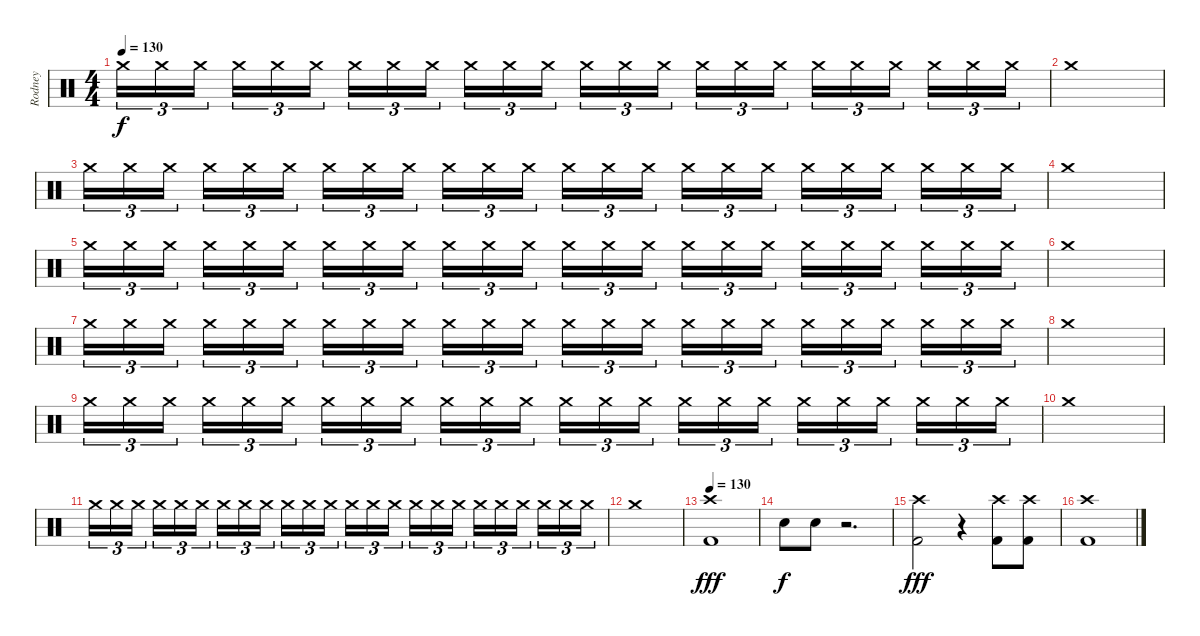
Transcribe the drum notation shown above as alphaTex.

\track ("Rodney" "Rodney") {instrument percussion}
\staff {score}
\articulation defaults
\ts (4 4)
\tempo 130
\clef neutral
\ks c "Crash medium (hit)".16{tu (3 2) dy f volume 16} "Crash medium (hit)".16{tu (3 2)} "Crash medium (hit)".16{tu (3 2)} "Crash medium (hit)".16{tu (3 2)} "Crash medium (hit)".16{tu (3 2)} "Crash medium (hit)".16{tu (3 2)} "Crash medium (hit)".16{tu (3 2)} "Crash medium (hit)".16{tu (3 2)} "Crash medium (hit)".16{tu (3 2)} "Crash medium (hit)".16{tu (3 2)} "Crash medium (hit)".16{tu (3 2)} "Crash medium (hit)".16{tu (3 2)} "Crash medium (hit)".16{tu (3 2)} "Crash medium (hit)".16{tu (3 2)} "Crash medium (hit)".16{tu (3 2)} "Crash medium (hit)".16{tu (3 2)} "Crash medium (hit)".16{tu (3 2)} "Crash medium (hit)".16{tu (3 2)} "Crash medium (hit)".16{tu (3 2)} "Crash medium (hit)".16{tu (3 2)} "Crash medium (hit)".16{tu (3 2)} "Crash medium (hit)".16{tu (3 2)} "Crash medium (hit)".16{tu (3 2)} "Crash medium (hit)".16{tu (3 2)}
|
"Crash medium (hit)".1{volume 0} |
"Crash medium (hit)".16{tu (3 2) volume 16} "Crash medium (hit)".16{tu (3 2)} "Crash medium (hit)".16{tu (3 2)} "Crash medium (hit)".16{tu (3 2)} "Crash medium (hit)".16{tu (3 2)} "Crash medium (hit)".16{tu (3 2)} "Crash medium (hit)".16{tu (3 2)} "Crash medium (hit)".16{tu (3 2)} "Crash medium (hit)".16{tu (3 2)} "Crash medium (hit)".16{tu (3 2)} "Crash medium (hit)".16{tu (3 2)} "Crash medium (hit)".16{tu (3 2)} "Crash medium (hit)".16{tu (3 2)} "Crash medium (hit)".16{tu (3 2)} "Crash medium (hit)".16{tu (3 2)} "Crash medium (hit)".16{tu (3 2)} "Crash medium (hit)".16{tu (3 2)} "Crash medium (hit)".16{tu (3 2)} "Crash medium (hit)".16{tu (3 2)} "Crash medium (hit)".16{tu (3 2)} "Crash medium (hit)".16{tu (3 2)} "Crash medium (hit)".16{tu (3 2)} "Crash medium (hit)".16{tu (3 2)} "Crash medium (hit)".16{tu (3 2)} |
"Crash medium (hit)".1{volume 0} |
"Crash medium (hit)".16{tu (3 2) volume 16} "Crash medium (hit)".16{tu (3 2)} "Crash medium (hit)".16{tu (3 2)} "Crash medium (hit)".16{tu (3 2)} "Crash medium (hit)".16{tu (3 2)} "Crash medium (hit)".16{tu (3 2)} "Crash medium (hit)".16{tu (3 2)} "Crash medium (hit)".16{tu (3 2)} "Crash medium (hit)".16{tu (3 2)} "Crash medium (hit)".16{tu (3 2)} "Crash medium (hit)".16{tu (3 2)} "Crash medium (hit)".16{tu (3 2)} "Crash medium (hit)".16{tu (3 2)} "Crash medium (hit)".16{tu (3 2)} "Crash medium (hit)".16{tu (3 2)} "Crash medium (hit)".16{tu (3 2)} "Crash medium (hit)".16{tu (3 2)} "Crash medium (hit)".16{tu (3 2)} "Crash medium (hit)".16{tu (3 2)} "Crash medium (hit)".16{tu (3 2)} "Crash medium (hit)".16{tu (3 2)} "Crash medium (hit)".16{tu (3 2)} "Crash medium (hit)".16{tu (3 2)} "Crash medium (hit)".16{tu (3 2)} |
"Crash medium (hit)".1{volume 0} |
"Crash medium (hit)".16{tu (3 2) volume 16} "Crash medium (hit)".16{tu (3 2)} "Crash medium (hit)".16{tu (3 2)} "Crash medium (hit)".16{tu (3 2)} "Crash medium (hit)".16{tu (3 2)} "Crash medium (hit)".16{tu (3 2)} "Crash medium (hit)".16{tu (3 2)} "Crash medium (hit)".16{tu (3 2)} "Crash medium (hit)".16{tu (3 2)} "Crash medium (hit)".16{tu (3 2)} "Crash medium (hit)".16{tu (3 2)} "Crash medium (hit)".16{tu (3 2)} "Crash medium (hit)".16{tu (3 2)} "Crash medium (hit)".16{tu (3 2)} "Crash medium (hit)".16{tu (3 2)} "Crash medium (hit)".16{tu (3 2)} "Crash medium (hit)".16{tu (3 2)} "Crash medium (hit)".16{tu (3 2)} "Crash medium (hit)".16{tu (3 2)} "Crash medium (hit)".16{tu (3 2)} "Crash medium (hit)".16{tu (3 2)} "Crash medium (hit)".16{tu (3 2)} "Crash medium (hit)".16{tu (3 2)} "Crash medium (hit)".16{tu (3 2)} |
"Crash medium (hit)".1{volume 0} |
"Crash medium (hit)".16{tu (3 2) volume 16} "Crash medium (hit)".16{tu (3 2)} "Crash medium (hit)".16{tu (3 2)} "Crash medium (hit)".16{tu (3 2)} "Crash medium (hit)".16{tu (3 2)} "Crash medium (hit)".16{tu (3 2)} "Crash medium (hit)".16{tu (3 2)} "Crash medium (hit)".16{tu (3 2)} "Crash medium (hit)".16{tu (3 2)} "Crash medium (hit)".16{tu (3 2)} "Crash medium (hit)".16{tu (3 2)} "Crash medium (hit)".16{tu (3 2)} "Crash medium (hit)".16{tu (3 2)} "Crash medium (hit)".16{tu (3 2)} "Crash medium (hit)".16{tu (3 2)} "Crash medium (hit)".16{tu (3 2)} "Crash medium (hit)".16{tu (3 2)} "Crash medium (hit)".16{tu (3 2)} "Crash medium (hit)".16{tu (3 2)} "Crash medium (hit)".16{tu (3 2)} "Crash medium (hit)".16{tu (3 2)} "Crash medium (hit)".16{tu (3 2)} "Crash medium (hit)".16{tu (3 2)} "Crash medium (hit)".16{tu (3 2)} |
"Crash medium (hit)".1{volume 0} |
"Crash medium (hit)".16{tu (3 2) volume 16} "Crash medium (hit)".16{tu (3 2)} "Crash medium (hit)".16{tu (3 2)} "Crash medium (hit)".16{tu (3 2)} "Crash medium (hit)".16{tu (3 2)} "Crash medium (hit)".16{tu (3 2)} "Crash medium (hit)".16{tu (3 2)} "Crash medium (hit)".16{tu (3 2)} "Crash medium (hit)".16{tu (3 2)} "Crash medium (hit)".16{tu (3 2)} "Crash medium (hit)".16{tu (3 2)} "Crash medium (hit)".16{tu (3 2)} "Crash medium (hit)".16{tu (3 2)} "Crash medium (hit)".16{tu (3 2)} "Crash medium (hit)".16{tu (3 2)} "Crash medium (hit)".16{tu (3 2)} "Crash medium (hit)".16{tu (3 2)} "Crash medium (hit)".16{tu (3 2)} "Crash medium (hit)".16{tu (3 2)} "Crash medium (hit)".16{tu (3 2)} "Crash medium (hit)".16{tu (3 2)} "Crash medium (hit)".16{tu (3 2)} "Crash medium (hit)".16{tu (3 2)} "Crash medium (hit)".16{tu (3 2)} |
"Crash medium (hit)".1 |
\tempo 130
("Crash high (hit)" "Kick (hit) 2").1{dy fff} |
"Snare (hit) 2".8{dy f} "Snare (hit) 2".8 r.2{d} |
("Crash high (hit)" "Kick (hit) 2").2{dy fff} r.4 ("Crash high (hit)" "Kick (hit) 2").8 ("Crash high (hit)" "Kick (hit) 2").8 |
("Crash high (hit)" "Kick (hit) 2").1
